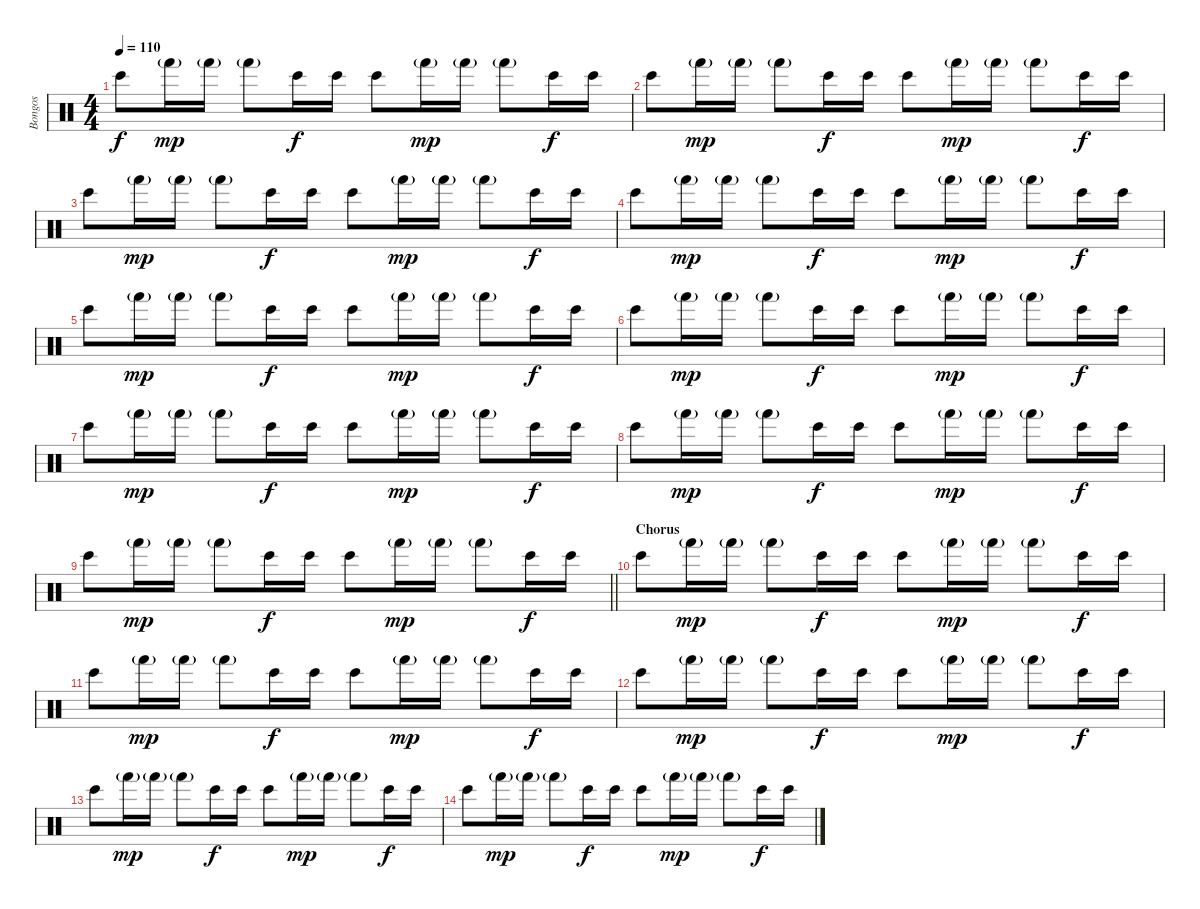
\track ("Bongos" "Bongos") {instrument percussion}
\staff {score}
\articulation defaults
\ts (4 4)
\tempo 110
\clef neutral
\ks c "Bongo High (hit)".8{dy f} "Hand (hit)"{g}.16{dy mp} "Hand (hit)"{g}.16 "Hand (hit)"{g}.8 "Bongo High (hit)".16{dy f} "Bongo High (hit)".16 "Bongo High (hit)".8 "Hand (hit)"{g}.16{dy mp} "Hand (hit)"{g}.16 "Hand (hit)"{g}.8 "Bongo High (hit)".16{dy f} "Bongo High (hit)".16
|
"Bongo High (hit)".8 "Hand (hit)"{g}.16{dy mp} "Hand (hit)"{g}.16 "Hand (hit)"{g}.8 "Bongo High (hit)".16{dy f} "Bongo High (hit)".16 "Bongo High (hit)".8 "Hand (hit)"{g}.16{dy mp} "Hand (hit)"{g}.16 "Hand (hit)"{g}.8 "Bongo High (hit)".16{dy f} "Bongo High (hit)".16 |
"Bongo High (hit)".8 "Hand (hit)"{g}.16{dy mp} "Hand (hit)"{g}.16 "Hand (hit)"{g}.8 "Bongo High (hit)".16{dy f} "Bongo High (hit)".16 "Bongo High (hit)".8 "Hand (hit)"{g}.16{dy mp} "Hand (hit)"{g}.16 "Hand (hit)"{g}.8 "Bongo High (hit)".16{dy f} "Bongo High (hit)".16 |
"Bongo High (hit)".8 "Hand (hit)"{g}.16{dy mp} "Hand (hit)"{g}.16 "Hand (hit)"{g}.8 "Bongo High (hit)".16{dy f} "Bongo High (hit)".16 "Bongo High (hit)".8 "Hand (hit)"{g}.16{dy mp} "Hand (hit)"{g}.16 "Hand (hit)"{g}.8 "Bongo High (hit)".16{dy f} "Bongo High (hit)".16 |
"Bongo High (hit)".8 "Hand (hit)"{g}.16{dy mp} "Hand (hit)"{g}.16 "Hand (hit)"{g}.8 "Bongo High (hit)".16{dy f} "Bongo High (hit)".16 "Bongo High (hit)".8 "Hand (hit)"{g}.16{dy mp} "Hand (hit)"{g}.16 "Hand (hit)"{g}.8 "Bongo High (hit)".16{dy f} "Bongo High (hit)".16 |
"Bongo High (hit)".8 "Hand (hit)"{g}.16{dy mp} "Hand (hit)"{g}.16 "Hand (hit)"{g}.8 "Bongo High (hit)".16{dy f} "Bongo High (hit)".16 "Bongo High (hit)".8 "Hand (hit)"{g}.16{dy mp} "Hand (hit)"{g}.16 "Hand (hit)"{g}.8 "Bongo High (hit)".16{dy f} "Bongo High (hit)".16 |
"Bongo High (hit)".8 "Hand (hit)"{g}.16{dy mp} "Hand (hit)"{g}.16 "Hand (hit)"{g}.8 "Bongo High (hit)".16{dy f} "Bongo High (hit)".16 "Bongo High (hit)".8 "Hand (hit)"{g}.16{dy mp} "Hand (hit)"{g}.16 "Hand (hit)"{g}.8 "Bongo High (hit)".16{dy f} "Bongo High (hit)".16 |
"Bongo High (hit)".8 "Hand (hit)"{g}.16{dy mp} "Hand (hit)"{g}.16 "Hand (hit)"{g}.8 "Bongo High (hit)".16{dy f} "Bongo High (hit)".16 "Bongo High (hit)".8 "Hand (hit)"{g}.16{dy mp} "Hand (hit)"{g}.16 "Hand (hit)"{g}.8 "Bongo High (hit)".16{dy f} "Bongo High (hit)".16 |
\barLineRight lightlight "Bongo High (hit)".8 "Hand (hit)"{g}.16{dy mp} "Hand (hit)"{g}.16 "Hand (hit)"{g}.8 "Bongo High (hit)".16{dy f} "Bongo High (hit)".16 "Bongo High (hit)".8 "Hand (hit)"{g}.16{dy mp} "Hand (hit)"{g}.16 "Hand (hit)"{g}.8 "Bongo High (hit)".16{dy f} "Bongo High (hit)".16
|
\section ("" "Chorus")
"Bongo High (hit)".8 "Hand (hit)"{g}.16{dy mp} "Hand (hit)"{g}.16 "Hand (hit)"{g}.8 "Bongo High (hit)".16{dy f} "Bongo High (hit)".16 "Bongo High (hit)".8 "Hand (hit)"{g}.16{dy mp} "Hand (hit)"{g}.16 "Hand (hit)"{g}.8 "Bongo High (hit)".16{dy f} "Bongo High (hit)".16 |
"Bongo High (hit)".8 "Hand (hit)"{g}.16{dy mp} "Hand (hit)"{g}.16 "Hand (hit)"{g}.8 "Bongo High (hit)".16{dy f} "Bongo High (hit)".16 "Bongo High (hit)".8 "Hand (hit)"{g}.16{dy mp} "Hand (hit)"{g}.16 "Hand (hit)"{g}.8 "Bongo High (hit)".16{dy f} "Bongo High (hit)".16 |
"Bongo High (hit)".8 "Hand (hit)"{g}.16{dy mp} "Hand (hit)"{g}.16 "Hand (hit)"{g}.8 "Bongo High (hit)".16{dy f} "Bongo High (hit)".16 "Bongo High (hit)".8 "Hand (hit)"{g}.16{dy mp} "Hand (hit)"{g}.16 "Hand (hit)"{g}.8 "Bongo High (hit)".16{dy f} "Bongo High (hit)".16 |
"Bongo High (hit)".8 "Hand (hit)"{g}.16{dy mp} "Hand (hit)"{g}.16 "Hand (hit)"{g}.8 "Bongo High (hit)".16{dy f} "Bongo High (hit)".16 "Bongo High (hit)".8 "Hand (hit)"{g}.16{dy mp} "Hand (hit)"{g}.16 "Hand (hit)"{g}.8 "Bongo High (hit)".16{dy f} "Bongo High (hit)".16 |
"Bongo High (hit)".8 "Hand (hit)"{g}.16{dy mp} "Hand (hit)"{g}.16 "Hand (hit)"{g}.8 "Bongo High (hit)".16{dy f} "Bongo High (hit)".16 "Bongo High (hit)".8 "Hand (hit)"{g}.16{dy mp} "Hand (hit)"{g}.16 "Hand (hit)"{g}.8 "Bongo High (hit)".16{dy f} "Bongo High (hit)".16
